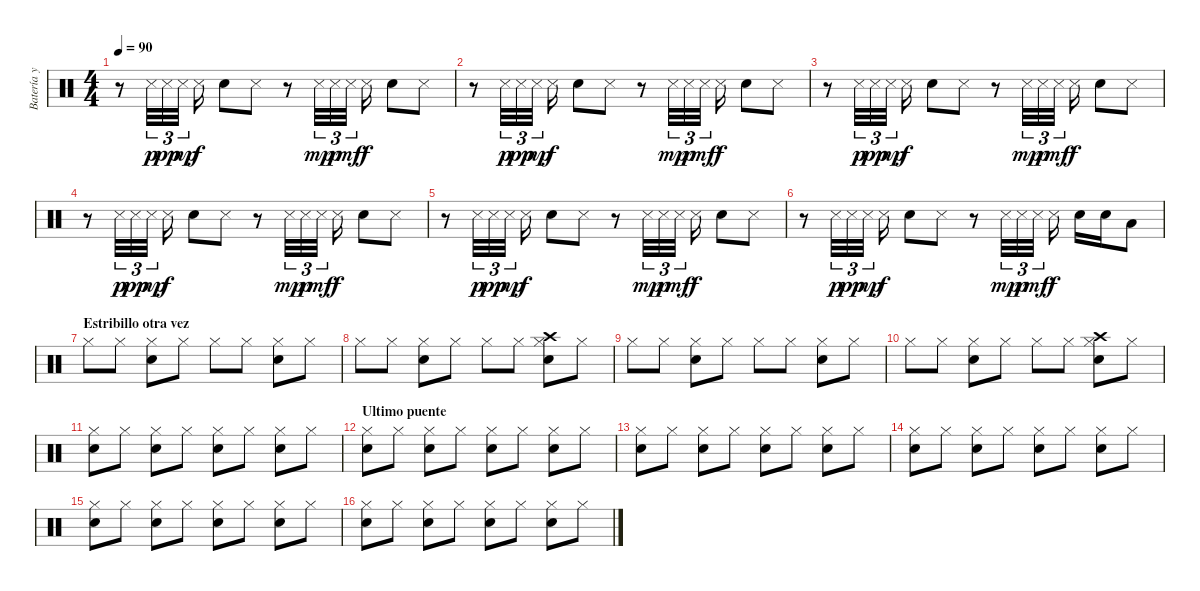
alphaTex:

\track ("Batería y risa" "Batería y ") {instrument percussion}
\staff {score}
\articulation defaults
\ts (4 4)
\tempo 90
\clef neutral
\ks c
r.8{dy f} "Snare (side stick) 3".32{tu (3 2) dy p} "Snare (side stick) 3".32{tu (3 2) dy pp} "Snare (side stick) 3".32{tu (3 2) dy mp} "Snare (side stick) 3".16{dy f} "Snare (hit) 2".8 "Snare (side stick) 3".8 r.8 "Snare (side stick) 3".32{tu (3 2) dy mp} "Snare (side stick) 3".32{tu (3 2) dy p} "Snare (side stick) 3".32{tu (3 2) dy mf} "Snare (side stick) 3".16{dy f} "Snare (hit) 2".8 "Snare (side stick) 3".8 |
r.8 "Snare (side stick) 3".32{tu (3 2) dy p} "Snare (side stick) 3".32{tu (3 2) dy pp} "Snare (side stick) 3".32{tu (3 2) dy mp} "Snare (side stick) 3".16{dy f} "Snare (hit) 2".8 "Snare (side stick) 3".8 r.8 "Snare (side stick) 3".32{tu (3 2) dy mp} "Snare (side stick) 3".32{tu (3 2) dy p} "Snare (side stick) 3".32{tu (3 2) dy mf} "Snare (side stick) 3".16{dy f} "Snare (hit) 2".8 "Snare (side stick) 3".8 |
r.8 "Snare (side stick) 3".32{tu (3 2) dy p} "Snare (side stick) 3".32{tu (3 2) dy pp} "Snare (side stick) 3".32{tu (3 2) dy mp} "Snare (side stick) 3".16{dy f} "Snare (hit) 2".8 "Snare (side stick) 3".8 r.8 "Snare (side stick) 3".32{tu (3 2) dy mp} "Snare (side stick) 3".32{tu (3 2) dy p} "Snare (side stick) 3".32{tu (3 2) dy mf} "Snare (side stick) 3".16{dy f} "Snare (hit) 2".8 "Snare (side stick) 3".8 |
r.8 "Snare (side stick) 3".32{tu (3 2) dy p} "Snare (side stick) 3".32{tu (3 2) dy pp} "Snare (side stick) 3".32{tu (3 2) dy mp} "Snare (side stick) 3".16{dy f} "Snare (hit) 2".8 "Snare (side stick) 3".8 r.8 "Snare (side stick) 3".32{tu (3 2) dy mp} "Snare (side stick) 3".32{tu (3 2) dy p} "Snare (side stick) 3".32{tu (3 2) dy mf} "Snare (side stick) 3".16{dy f} "Snare (hit) 2".8 "Snare (side stick) 3".8 |
r.8 "Snare (side stick) 3".32{tu (3 2) dy p} "Snare (side stick) 3".32{tu (3 2) dy pp} "Snare (side stick) 3".32{tu (3 2) dy mp} "Snare (side stick) 3".16{dy f} "Snare (hit) 2".8 "Snare (side stick) 3".8 r.8 "Snare (side stick) 3".32{tu (3 2) dy mp} "Snare (side stick) 3".32{tu (3 2) dy p} "Snare (side stick) 3".32{tu (3 2) dy mf} "Snare (side stick) 3".16{dy f} "Snare (hit) 2".8 "Snare (side stick) 3".8 |
r.8 "Snare (side stick) 3".32{tu (3 2) dy p} "Snare (side stick) 3".32{tu (3 2) dy pp} "Snare (side stick) 3".32{tu (3 2) dy mp} "Snare (side stick) 3".16{dy f} "Snare (hit) 2".8 "Snare (side stick) 3".8 r.8 "Snare (side stick) 3".32{tu (3 2) dy mp} "Snare (side stick) 3".32{tu (3 2) dy p} "Snare (side stick) 3".32{tu (3 2) dy mf} "Snare (side stick) 3".16{dy f} "Snare (hit) 2".16 "Snare (hit) 2".16 "Low Tom (hit)".8 |
\section ("" "Estribillo otra vez")
"Hi-Hat (closed)".8 "Hi-Hat (closed)".8 ("Hi-Hat (closed)" "Snare (hit) 2").8 "Hi-Hat (closed)".8 "Hi-Hat (closed)".8 "Hi-Hat (closed)".8 ("Hi-Hat (closed)" "Snare (hit) 2").8 "Hi-Hat (closed)".8 |
"Hi-Hat (closed)".8 "Hi-Hat (closed)".8 ("Hi-Hat (closed)" "Snare (hit) 2").8 "Hi-Hat (closed)".8 "Hi-Hat (closed)".8 "Hi-Hat (closed)".8 ("Hi-Hat (closed)" "Snare (hit) 2" "Crash high (hit)").8 "Hi-Hat (closed)".8 |
"Hi-Hat (closed)".8 "Hi-Hat (closed)".8 ("Hi-Hat (closed)" "Snare (hit) 2").8 "Hi-Hat (closed)".8 "Hi-Hat (closed)".8 "Hi-Hat (closed)".8 ("Hi-Hat (closed)" "Snare (hit) 2").8 "Hi-Hat (closed)".8 |
"Hi-Hat (closed)".8 "Hi-Hat (closed)".8 ("Hi-Hat (closed)" "Snare (hit) 2").8 "Hi-Hat (closed)".8 "Hi-Hat (closed)".8 "Hi-Hat (closed)".8 ("Hi-Hat (closed)" "Snare (hit) 2" "Crash high (hit)").8 "Hi-Hat (closed)".8 |
("Hi-Hat (closed)" "Snare (hit) 2").8 "Hi-Hat (closed)".8 ("Hi-Hat (closed)" "Snare (hit) 2").8 "Hi-Hat (closed)".8 ("Hi-Hat (closed)" "Snare (hit) 2").8 "Hi-Hat (closed)".8 ("Hi-Hat (closed)" "Snare (hit) 2").8 "Hi-Hat (closed)".8 |
\section ("" "Ultimo puente")
("Hi-Hat (closed)" "Snare (hit) 2").8 "Hi-Hat (closed)".8 ("Hi-Hat (closed)" "Snare (hit) 2").8 "Hi-Hat (closed)".8 ("Hi-Hat (closed)" "Snare (hit) 2").8 "Hi-Hat (closed)".8 ("Hi-Hat (closed)" "Snare (hit) 2").8 "Hi-Hat (closed)".8 |
("Hi-Hat (closed)" "Snare (hit) 2").8 "Hi-Hat (closed)".8 ("Hi-Hat (closed)" "Snare (hit) 2").8 "Hi-Hat (closed)".8 ("Hi-Hat (closed)" "Snare (hit) 2").8 "Hi-Hat (closed)".8 ("Hi-Hat (closed)" "Snare (hit) 2").8 "Hi-Hat (closed)".8 |
("Hi-Hat (closed)" "Snare (hit) 2").8 "Hi-Hat (closed)".8 ("Hi-Hat (closed)" "Snare (hit) 2").8 "Hi-Hat (closed)".8 ("Hi-Hat (closed)" "Snare (hit) 2").8 "Hi-Hat (closed)".8 ("Hi-Hat (closed)" "Snare (hit) 2").8 "Hi-Hat (closed)".8 |
("Hi-Hat (closed)" "Snare (hit) 2").8 "Hi-Hat (closed)".8 ("Hi-Hat (closed)" "Snare (hit) 2").8 "Hi-Hat (closed)".8 ("Hi-Hat (closed)" "Snare (hit) 2").8 "Hi-Hat (closed)".8 ("Hi-Hat (closed)" "Snare (hit) 2").8 "Hi-Hat (closed)".8 |
("Hi-Hat (closed)" "Snare (hit) 2").8 "Hi-Hat (closed)".8 ("Hi-Hat (closed)" "Snare (hit) 2").8 "Hi-Hat (closed)".8 ("Hi-Hat (closed)" "Snare (hit) 2").8 "Hi-Hat (closed)".8 ("Hi-Hat (closed)" "Snare (hit) 2").8 "Hi-Hat (closed)".8
